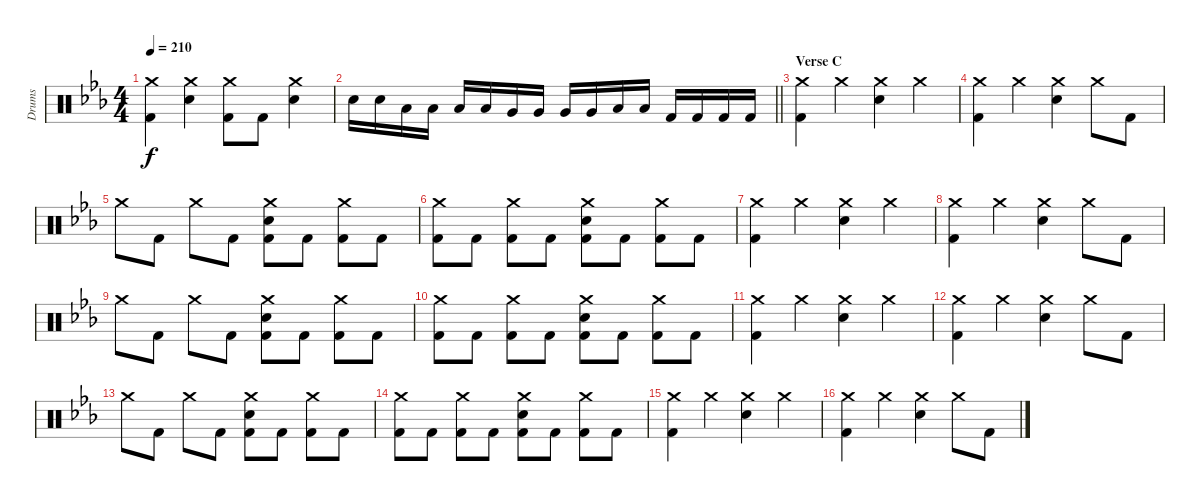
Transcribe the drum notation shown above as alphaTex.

\track ("Drums" "Drums") {instrument percussion}
\staff {score}
\articulation defaults
\ts (4 4)
\tempo 210
\clef neutral
\ks cminor
("Crash medium (hit)" "Kick (hit) 2").4{dy f} ("Crash medium (hit)" "Electric Snare (hit)").4 ("Crash medium (hit)" "Kick (hit) 2").8 "Kick (hit) 2".8 ("Crash medium (hit)" "Electric Snare (hit)").4 |
\barLineRight lightlight "Electric Snare (hit)".16 "Electric Snare (hit)".16 "Low Tom (hit)".16 "Low Tom (hit)".16 "Low Tom (hit)".16 "Low Tom (hit)".16 "Very Low Tom (hit)".16 "Very Low Tom (hit)".16 "Very Low Tom (hit)".16 "Very Low Tom (hit)".16 "Low Floor Tom (hit)".16 "Low Floor Tom (hit)".16 "Kick (hit) 2".16 "Kick (hit) 2".16 "Kick (hit) 2".16 "Kick (hit) 2".16
|
\section ("" "Verse C")
("Crash medium (hit)" "Kick (hit) 2").4 "Crash medium (hit)".4 ("Crash medium (hit)" "Electric Snare (hit)").4 "Crash medium (hit)".4 |
("Crash medium (hit)" "Kick (hit) 2").4 "Crash medium (hit)".4 ("Crash medium (hit)" "Electric Snare (hit)").4 "Crash medium (hit)".8 "Kick (hit) 2".8 |
"Crash medium (hit)".8 "Kick (hit) 2".8 "Crash medium (hit)".8 "Kick (hit) 2".8 ("Crash medium (hit)" "Electric Snare (hit)" "Kick (hit) 2").8 "Kick (hit) 2".8 ("Crash medium (hit)" "Kick (hit) 2").8 "Kick (hit) 2".8 |
("Crash medium (hit)" "Kick (hit) 2").8 "Kick (hit) 2".8 ("Crash medium (hit)" "Kick (hit) 2").8 "Kick (hit) 2".8 ("Crash medium (hit)" "Electric Snare (hit)" "Kick (hit) 2").8 "Kick (hit) 2".8 ("Crash medium (hit)" "Kick (hit) 2").8 "Kick (hit) 2".8 |
("Crash medium (hit)" "Kick (hit) 2").4 "Crash medium (hit)".4 ("Crash medium (hit)" "Electric Snare (hit)").4 "Crash medium (hit)".4 |
("Crash medium (hit)" "Kick (hit) 2").4 "Crash medium (hit)".4 ("Crash medium (hit)" "Electric Snare (hit)").4 "Crash medium (hit)".8 "Kick (hit) 2".8 |
"Crash medium (hit)".8 "Kick (hit) 2".8 "Crash medium (hit)".8 "Kick (hit) 2".8 ("Crash medium (hit)" "Electric Snare (hit)" "Kick (hit) 2").8 "Kick (hit) 2".8 ("Crash medium (hit)" "Kick (hit) 2").8 "Kick (hit) 2".8 |
("Crash medium (hit)" "Kick (hit) 2").8 "Kick (hit) 2".8 ("Crash medium (hit)" "Kick (hit) 2").8 "Kick (hit) 2".8 ("Crash medium (hit)" "Electric Snare (hit)" "Kick (hit) 2").8 "Kick (hit) 2".8 ("Crash medium (hit)" "Kick (hit) 2").8 "Kick (hit) 2".8 |
("Crash medium (hit)" "Kick (hit) 2").4 "Crash medium (hit)".4 ("Crash medium (hit)" "Electric Snare (hit)").4 "Crash medium (hit)".4 |
("Crash medium (hit)" "Kick (hit) 2").4 "Crash medium (hit)".4 ("Crash medium (hit)" "Electric Snare (hit)").4 "Crash medium (hit)".8 "Kick (hit) 2".8 |
"Crash medium (hit)".8 "Kick (hit) 2".8 "Crash medium (hit)".8 "Kick (hit) 2".8 ("Crash medium (hit)" "Electric Snare (hit)" "Kick (hit) 2").8 "Kick (hit) 2".8 ("Crash medium (hit)" "Kick (hit) 2").8 "Kick (hit) 2".8 |
("Crash medium (hit)" "Kick (hit) 2").8 "Kick (hit) 2".8 ("Crash medium (hit)" "Kick (hit) 2").8 "Kick (hit) 2".8 ("Crash medium (hit)" "Electric Snare (hit)" "Kick (hit) 2").8 "Kick (hit) 2".8 ("Crash medium (hit)" "Kick (hit) 2").8 "Kick (hit) 2".8 |
("Crash medium (hit)" "Kick (hit) 2").4 "Crash medium (hit)".4 ("Crash medium (hit)" "Electric Snare (hit)").4 "Crash medium (hit)".4 |
("Crash medium (hit)" "Kick (hit) 2").4 "Crash medium (hit)".4 ("Crash medium (hit)" "Electric Snare (hit)").4 "Crash medium (hit)".8 "Kick (hit) 2".8
